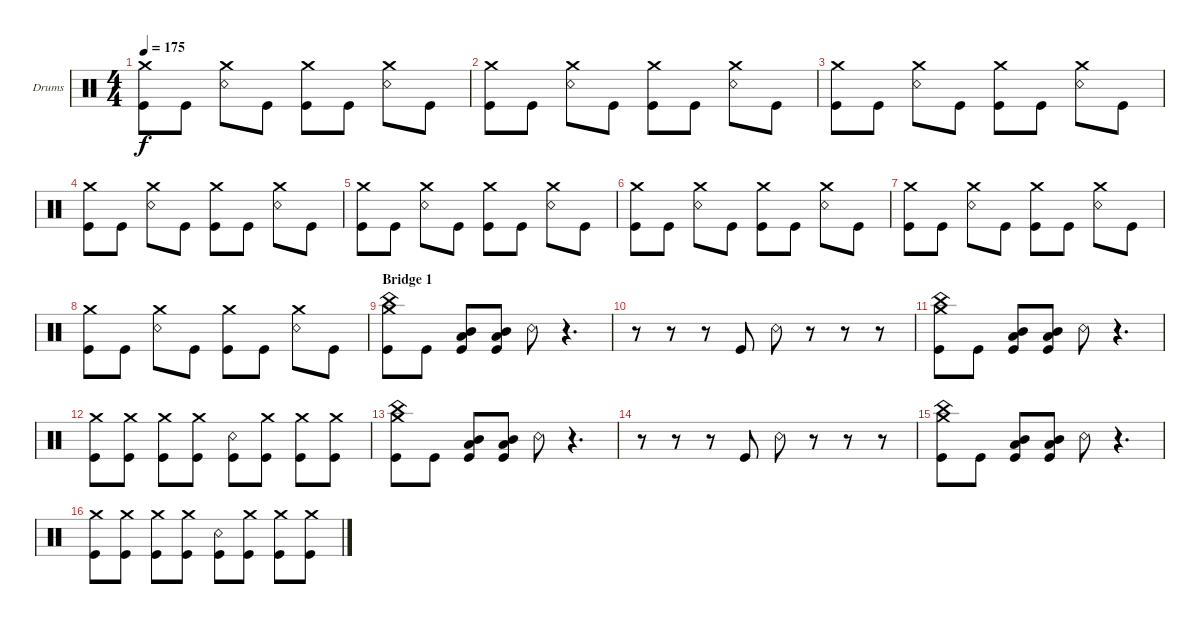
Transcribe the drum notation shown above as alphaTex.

\bracketExtendMode groupsimilarinstruments
\firstSystemTrackNameOrientation horizontal
\otherSystemsTrackNameOrientation horizontal
\track ("Kanky Lora" "Drums") {instrument percussion}
\staff {score}
\articulation defaults
\ts (4 4)
\tempo 175
\clef neutral
\ks c
("Kick (hit)" "Crash medium (hit)").8{dy f} "Kick (hit)".8 ("Snare (rim shot)" "Crash medium (hit)").8 "Kick (hit)".8 ("Kick (hit)" "Crash medium (hit)").8 "Kick (hit)".8 ("Snare (rim shot)" "Crash medium (hit)").8 "Kick (hit)".8 |
("Kick (hit)" "Crash medium (hit)").8 "Kick (hit)".8 ("Snare (rim shot)" "Crash medium (hit)").8 "Kick (hit)".8 ("Kick (hit)" "Crash medium (hit)").8 "Kick (hit)".8 ("Snare (rim shot)" "Crash medium (hit)").8 "Kick (hit)".8 |
("Kick (hit)" "Crash medium (hit)").8 "Kick (hit)".8 ("Snare (rim shot)" "Crash medium (hit)").8 "Kick (hit)".8 ("Kick (hit)" "Crash medium (hit)").8 "Kick (hit)".8 ("Snare (rim shot)" "Crash medium (hit)").8 "Kick (hit)".8 |
("Kick (hit)" "Crash medium (hit)").8 "Kick (hit)".8 ("Snare (rim shot)" "Crash medium (hit)").8 "Kick (hit)".8 ("Kick (hit)" "Crash medium (hit)").8 "Kick (hit)".8 ("Snare (rim shot)" "Crash medium (hit)").8 "Kick (hit)".8 |
("Kick (hit)" "Crash medium (hit)").8 "Kick (hit)".8 ("Snare (rim shot)" "Crash medium (hit)").8 "Kick (hit)".8 ("Kick (hit)" "Crash medium (hit)").8 "Kick (hit)".8 ("Snare (rim shot)" "Crash medium (hit)").8 "Kick (hit)".8 |
("Kick (hit)" "Crash medium (hit)").8 "Kick (hit)".8 ("Snare (rim shot)" "Crash medium (hit)").8 "Kick (hit)".8 ("Kick (hit)" "Crash medium (hit)").8 "Kick (hit)".8 ("Snare (rim shot)" "Crash medium (hit)").8 "Kick (hit)".8 |
("Kick (hit)" "Crash medium (hit)").8 "Kick (hit)".8 ("Snare (rim shot)" "Crash medium (hit)").8 "Kick (hit)".8 ("Kick (hit)" "Crash medium (hit)").8 "Kick (hit)".8 ("Snare (rim shot)" "Crash medium (hit)").8 "Kick (hit)".8 |
("Kick (hit)" "Crash medium (hit)").8 "Kick (hit)".8 ("Snare (rim shot)" "Crash medium (hit)").8 "Kick (hit)".8 ("Kick (hit)" "Crash medium (hit)").8 "Kick (hit)".8 ("Snare (rim shot)" "Crash medium (hit)").8 "Kick (hit)".8 |
\section ("" "Bridge 1")
("Kick (hit)" "Crash medium (hit)" "China (hit)").8 "Kick (hit)".8 ("Kick (hit)" "Low Tom (hit)" "Mid Tom (hit)").8 ("Kick (hit)" "Mid Tom (hit)" "Low Tom (hit)").8 "Snare (rim shot)".8 r.4{d} |
r.8 r.8 r.8 "Kick (hit)".8 "Snare (rim shot)".8 r.8 r.8 r.8 |
("Kick (hit)" "Crash medium (hit)" "China (hit)").8 "Kick (hit)".8 ("Kick (hit)" "Low Tom (hit)" "Mid Tom (hit)").8 ("Kick (hit)" "Mid Tom (hit)" "Low Tom (hit)").8 "Snare (rim shot)".8 r.4{d} |
("Kick (hit)" "Crash medium (hit)").8 ("Kick (hit)" "Crash medium (hit)").8 ("Kick (hit)" "Crash medium (hit)").8 ("Kick (hit)" "Crash medium (hit)").8 ("Kick (hit)" "Snare (rim shot)").8 ("Kick (hit)" "Crash medium (hit)").8 ("Kick (hit)" "Crash medium (hit)").8 ("Kick (hit)" "Crash medium (hit)").8 |
("Kick (hit)" "Crash medium (hit)" "China (hit)").8 "Kick (hit)".8 ("Kick (hit)" "Low Tom (hit)" "Mid Tom (hit)").8 ("Kick (hit)" "Mid Tom (hit)" "Low Tom (hit)").8 "Snare (rim shot)".8 r.4{d} |
r.8 r.8 r.8 "Kick (hit)".8 "Snare (rim shot)".8 r.8 r.8 r.8 |
("Kick (hit)" "Crash medium (hit)" "China (hit)").8 "Kick (hit)".8 ("Kick (hit)" "Low Tom (hit)" "Mid Tom (hit)").8 ("Kick (hit)" "Mid Tom (hit)" "Low Tom (hit)").8 "Snare (rim shot)".8 r.4{d} |
("Kick (hit)" "Crash medium (hit)").8 ("Kick (hit)" "Crash medium (hit)").8 ("Kick (hit)" "Crash medium (hit)").8 ("Kick (hit)" "Crash medium (hit)").8 ("Kick (hit)" "Snare (rim shot)").8 ("Kick (hit)" "Crash medium (hit)").8 ("Kick (hit)" "Crash medium (hit)").8 ("Kick (hit)" "Crash medium (hit)").8
